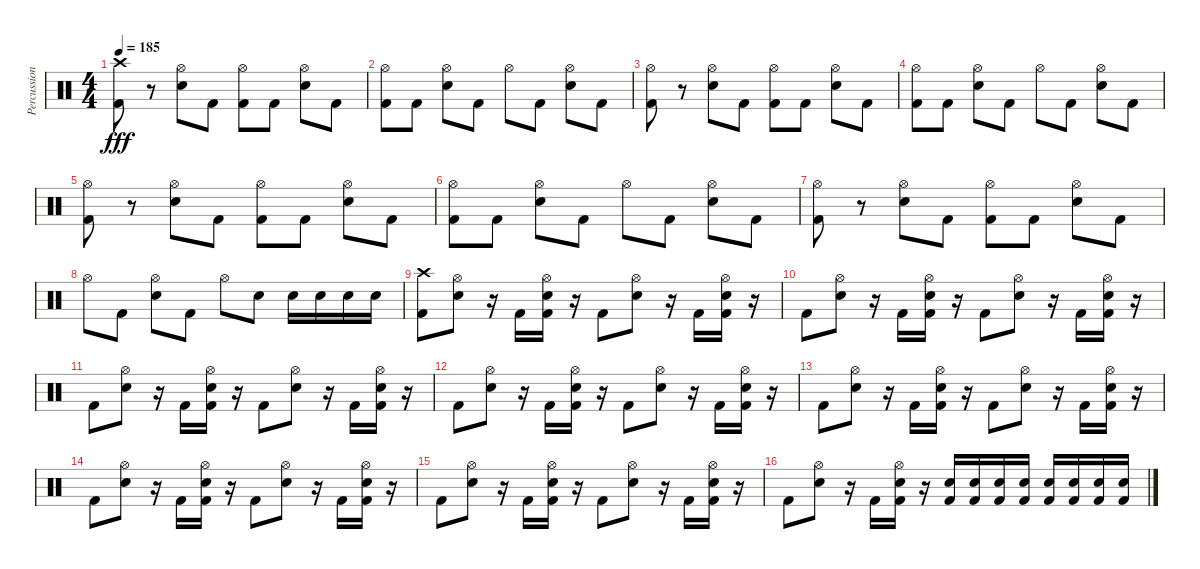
\track ("Percussion" "Percussion") {instrument percussion}
\staff {score}
\articulation defaults
\ts (4 4)
\tempo 185
\clef neutral
\ks c
("Kick (hit) 2" "Crash high (hit)").8{dy fff} r.8 ("Electric Snare (hit)" "Hi-Hat (open)").8 "Kick (hit) 2".8 ("Kick (hit) 2" "Hi-Hat (open)").8 "Kick (hit) 2".8 ("Electric Snare (hit)" "Hi-Hat (open)").8 "Kick (hit) 2".8 |
("Kick (hit) 2" "Hi-Hat (open)").8 "Kick (hit) 2".8 ("Electric Snare (hit)" "Hi-Hat (open)").8 "Kick (hit) 2".8 "Hi-Hat (open)".8 "Kick (hit) 2".8 ("Electric Snare (hit)" "Hi-Hat (open)").8 "Kick (hit) 2".8 |
("Kick (hit) 2" "Hi-Hat (open)").8 r.8 ("Electric Snare (hit)" "Hi-Hat (open)").8 "Kick (hit) 2".8 ("Kick (hit) 2" "Hi-Hat (open)").8 "Kick (hit) 2".8 ("Electric Snare (hit)" "Hi-Hat (open)").8 "Kick (hit) 2".8 |
("Kick (hit) 2" "Hi-Hat (open)").8 "Kick (hit) 2".8 ("Electric Snare (hit)" "Hi-Hat (open)").8 "Kick (hit) 2".8 "Hi-Hat (open)".8 "Kick (hit) 2".8 ("Electric Snare (hit)" "Hi-Hat (open)").8 "Kick (hit) 2".8 |
("Kick (hit) 2" "Hi-Hat (open)").8 r.8 ("Electric Snare (hit)" "Hi-Hat (open)").8 "Kick (hit) 2".8 ("Kick (hit) 2" "Hi-Hat (open)").8 "Kick (hit) 2".8 ("Electric Snare (hit)" "Hi-Hat (open)").8 "Kick (hit) 2".8 |
("Kick (hit) 2" "Hi-Hat (open)").8 "Kick (hit) 2".8 ("Electric Snare (hit)" "Hi-Hat (open)").8 "Kick (hit) 2".8 "Hi-Hat (open)".8 "Kick (hit) 2".8 ("Electric Snare (hit)" "Hi-Hat (open)").8 "Kick (hit) 2".8 |
("Kick (hit) 2" "Hi-Hat (open)").8 r.8 ("Electric Snare (hit)" "Hi-Hat (open)").8 "Kick (hit) 2".8 ("Kick (hit) 2" "Hi-Hat (open)").8 "Kick (hit) 2".8 ("Electric Snare (hit)" "Hi-Hat (open)").8 "Kick (hit) 2".8 |
"Hi-Hat (open)".8 "Kick (hit) 2".8 ("Electric Snare (hit)" "Hi-Hat (open)").8 "Kick (hit) 2".8 "Hi-Hat (open)".8 "Electric Snare (hit)".8 "Electric Snare (hit)".16 "Electric Snare (hit)".16 "Electric Snare (hit)".16 "Electric Snare (hit)".16 |
("Kick (hit) 2" "Crash high (hit)").8 ("Electric Snare (hit)" "Hi-Hat (open)").8 r.16 "Kick (hit) 2".16 ("Kick (hit) 2" "Electric Snare (hit)" "Hi-Hat (open)").16 r.16 "Kick (hit) 2".8 ("Electric Snare (hit)" "Hi-Hat (open)").8 r.16 "Kick (hit) 2".16 ("Kick (hit) 2" "Electric Snare (hit)" "Hi-Hat (open)").16 r.16 |
"Kick (hit) 2".8 ("Electric Snare (hit)" "Hi-Hat (open)").8 r.16 "Kick (hit) 2".16 ("Kick (hit) 2" "Electric Snare (hit)" "Hi-Hat (open)").16 r.16 "Kick (hit) 2".8 ("Electric Snare (hit)" "Hi-Hat (open)").8 r.16 "Kick (hit) 2".16 ("Kick (hit) 2" "Electric Snare (hit)" "Hi-Hat (open)").16 r.16 |
"Kick (hit) 2".8 ("Electric Snare (hit)" "Hi-Hat (open)").8 r.16 "Kick (hit) 2".16 ("Kick (hit) 2" "Electric Snare (hit)" "Hi-Hat (open)").16 r.16 "Kick (hit) 2".8 ("Electric Snare (hit)" "Hi-Hat (open)").8 r.16 "Kick (hit) 2".16 ("Kick (hit) 2" "Electric Snare (hit)" "Hi-Hat (open)").16 r.16 |
"Kick (hit) 2".8 ("Electric Snare (hit)" "Hi-Hat (open)").8 r.16 "Kick (hit) 2".16 ("Kick (hit) 2" "Electric Snare (hit)" "Hi-Hat (open)").16 r.16 "Kick (hit) 2".8 ("Electric Snare (hit)" "Hi-Hat (open)").8 r.16 "Kick (hit) 2".16 ("Kick (hit) 2" "Electric Snare (hit)" "Hi-Hat (open)").16 r.16 |
"Kick (hit) 2".8 ("Electric Snare (hit)" "Hi-Hat (open)").8 r.16 "Kick (hit) 2".16 ("Kick (hit) 2" "Electric Snare (hit)" "Hi-Hat (open)").16 r.16 "Kick (hit) 2".8 ("Electric Snare (hit)" "Hi-Hat (open)").8 r.16 "Kick (hit) 2".16 ("Kick (hit) 2" "Electric Snare (hit)" "Hi-Hat (open)").16 r.16 |
"Kick (hit) 2".8 ("Electric Snare (hit)" "Hi-Hat (open)").8 r.16 "Kick (hit) 2".16 ("Kick (hit) 2" "Electric Snare (hit)" "Hi-Hat (open)").16 r.16 "Kick (hit) 2".8 ("Electric Snare (hit)" "Hi-Hat (open)").8 r.16 "Kick (hit) 2".16 ("Kick (hit) 2" "Electric Snare (hit)" "Hi-Hat (open)").16 r.16 |
"Kick (hit) 2".8 ("Electric Snare (hit)" "Hi-Hat (open)").8 r.16 "Kick (hit) 2".16 ("Kick (hit) 2" "Electric Snare (hit)" "Hi-Hat (open)").16 r.16 "Kick (hit) 2".8 ("Electric Snare (hit)" "Hi-Hat (open)").8 r.16 "Kick (hit) 2".16 ("Kick (hit) 2" "Electric Snare (hit)" "Hi-Hat (open)").16 r.16 |
"Kick (hit) 2".8 ("Electric Snare (hit)" "Hi-Hat (open)").8 r.16 "Kick (hit) 2".16 ("Kick (hit) 2" "Electric Snare (hit)" "Hi-Hat (open)").16 r.16 ("Kick (hit) 2" "Electric Snare (hit)").16 ("Kick (hit) 2" "Electric Snare (hit)").16 ("Kick (hit) 2" "Electric Snare (hit)").16 ("Kick (hit) 2" "Electric Snare (hit)").16 ("Kick (hit) 2" "Electric Snare (hit)").16 ("Kick (hit) 2" "Electric Snare (hit)").16 ("Kick (hit) 2" "Electric Snare (hit)").16 ("Kick (hit) 2" "Electric Snare (hit)").16
